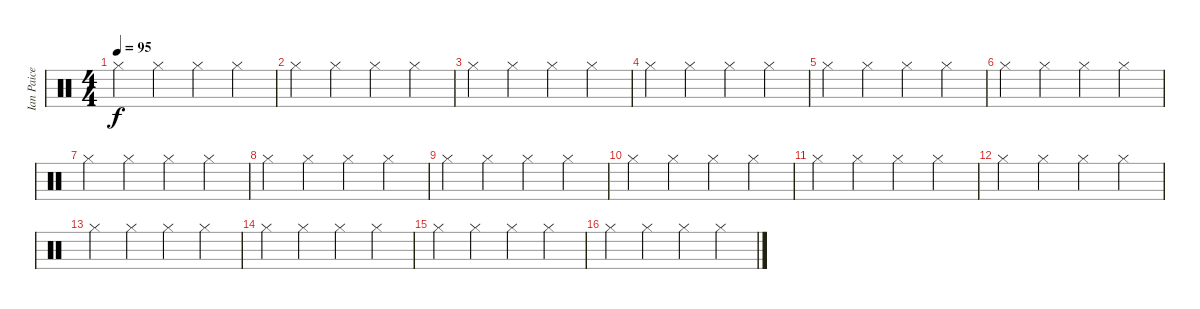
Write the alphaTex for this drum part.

\track ("Ian Paice" "Ian Paice") {instrument percussion}
\staff {score}
\articulation defaults
\ts (4 4)
\tempo 95
\clef neutral
\ks c "Hi-Hat (closed)".4{dy f} "Hi-Hat (closed)".4 "Hi-Hat (closed)".4 "Hi-Hat (closed)".4
|
"Hi-Hat (closed)".4 "Hi-Hat (closed)".4 "Hi-Hat (closed)".4 "Hi-Hat (closed)".4 |
"Hi-Hat (closed)".4 "Hi-Hat (closed)".4 "Hi-Hat (closed)".4 "Hi-Hat (closed)".4 |
"Hi-Hat (closed)".4 "Hi-Hat (closed)".4 "Hi-Hat (closed)".4 "Hi-Hat (closed)".4 |
"Hi-Hat (closed)".4 "Hi-Hat (closed)".4 "Hi-Hat (closed)".4 "Hi-Hat (closed)".4 |
"Hi-Hat (closed)".4 "Hi-Hat (closed)".4 "Hi-Hat (closed)".4 "Hi-Hat (closed)".4 |
"Hi-Hat (closed)".4 "Hi-Hat (closed)".4 "Hi-Hat (closed)".4 "Hi-Hat (closed)".4 |
"Hi-Hat (closed)".4 "Hi-Hat (closed)".4 "Hi-Hat (closed)".4 "Hi-Hat (closed)".4 |
"Hi-Hat (closed)".4 "Hi-Hat (closed)".4 "Hi-Hat (closed)".4 "Hi-Hat (closed)".4 |
"Hi-Hat (closed)".4 "Hi-Hat (closed)".4 "Hi-Hat (closed)".4 "Hi-Hat (closed)".4 |
"Hi-Hat (closed)".4 "Hi-Hat (closed)".4 "Hi-Hat (closed)".4 "Hi-Hat (closed)".4 |
"Hi-Hat (closed)".4 "Hi-Hat (closed)".4 "Hi-Hat (closed)".4 "Hi-Hat (closed)".4 |
"Hi-Hat (closed)".4 "Hi-Hat (closed)".4 "Hi-Hat (closed)".4 "Hi-Hat (closed)".4 |
"Hi-Hat (closed)".4 "Hi-Hat (closed)".4 "Hi-Hat (closed)".4 "Hi-Hat (closed)".4 |
"Hi-Hat (closed)".4 "Hi-Hat (closed)".4 "Hi-Hat (closed)".4 "Hi-Hat (closed)".4 |
"Hi-Hat (closed)".4 "Hi-Hat (closed)".4 "Hi-Hat (closed)".4 "Hi-Hat (closed)".4
